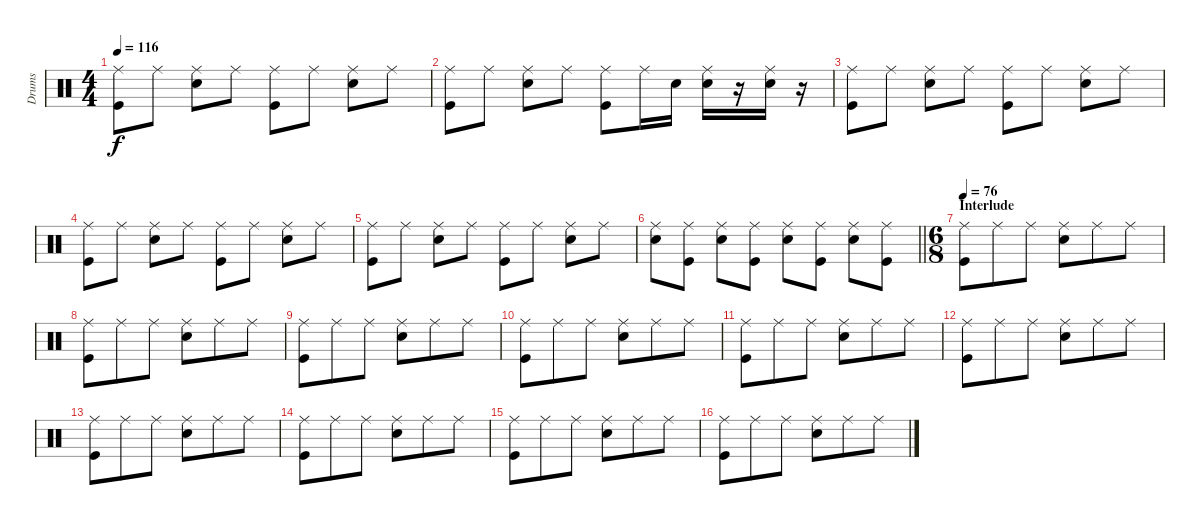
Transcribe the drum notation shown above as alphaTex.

\track ("Drums" "Drums") {instrument percussion}
\staff {score}
\articulation defaults
\ts (4 4)
\tempo 116
\clef neutral
\ks c
("Ride (middle)" "Kick (hit)").8{dy f} "Ride (middle)".8 ("Ride (middle)" "Snare (hit) 2").8 "Ride (middle)".8 ("Ride (middle)" "Kick (hit)").8 "Ride (middle)".8 ("Ride (middle)" "Snare (hit) 2").8 "Ride (middle)".8 |
("Ride (middle)" "Kick (hit)").8 "Ride (middle)".8 ("Ride (middle)" "Snare (hit) 2").8 "Ride (middle)".8 ("Ride (middle)" "Kick (hit)").8 "Ride (middle)".16 "Snare (hit) 2".16 ("Ride (middle)" "Snare (hit) 2").16 r.16 ("Ride (middle)" "Snare (hit) 2").16 r.16 |
("Ride (middle)" "Kick (hit)").8 "Ride (middle)".8 ("Ride (middle)" "Snare (hit) 2").8 "Ride (middle)".8 ("Ride (middle)" "Kick (hit)").8 "Ride (middle)".8 ("Ride (middle)" "Snare (hit) 2").8 "Ride (middle)".8 |
("Ride (middle)" "Kick (hit)").8 "Ride (middle)".8 ("Ride (middle)" "Snare (hit) 2").8 "Ride (middle)".8 ("Ride (middle)" "Kick (hit)").8 "Ride (middle)".8 ("Ride (middle)" "Snare (hit) 2").8 "Ride (middle)".8 |
("Ride (middle)" "Kick (hit)").8 "Ride (middle)".8 ("Ride (middle)" "Snare (hit) 2").8 "Ride (middle)".8 ("Ride (middle)" "Kick (hit)").8 "Ride (middle)".8 ("Ride (middle)" "Snare (hit) 2").8 "Ride (middle)".8 |
\barLineRight lightlight
("Ride (middle)" "Snare (hit) 2").8 ("Ride (middle)" "Kick (hit)").8 ("Ride (middle)" "Snare (hit) 2").8 ("Ride (middle)" "Kick (hit)").8 ("Ride (middle)" "Snare (hit) 2").8 ("Ride (middle)" "Kick (hit)").8 ("Ride (middle)" "Snare (hit) 2").8 ("Ride (middle)" "Kick (hit)").8 |
\ts (6 8)
\section ("" "Interlude")
\tempo 76
("Ride (middle)" "Kick (hit)").8 "Ride (middle)".8 "Ride (middle)".8 ("Ride (middle)" "Snare (hit) 2").8 "Ride (middle)".8 "Ride (middle)".8 |
("Ride (middle)" "Kick (hit)").8 "Ride (middle)".8 "Ride (middle)".8 ("Ride (middle)" "Snare (hit) 2").8 "Ride (middle)".8 "Ride (middle)".8 |
("Ride (middle)" "Kick (hit)").8 "Ride (middle)".8 "Ride (middle)".8 ("Ride (middle)" "Snare (hit) 2").8 "Ride (middle)".8 "Ride (middle)".8 |
("Ride (middle)" "Kick (hit)").8 "Ride (middle)".8 "Ride (middle)".8 ("Ride (middle)" "Snare (hit) 2").8 "Ride (middle)".8 "Ride (middle)".8 |
("Ride (middle)" "Kick (hit)").8 "Ride (middle)".8 "Ride (middle)".8 ("Ride (middle)" "Snare (hit) 2").8 "Ride (middle)".8 "Ride (middle)".8 |
("Ride (middle)" "Kick (hit)").8 "Ride (middle)".8 "Ride (middle)".8 ("Ride (middle)" "Snare (hit) 2").8 "Ride (middle)".8 "Ride (middle)".8 |
("Ride (middle)" "Kick (hit)").8 "Ride (middle)".8 "Ride (middle)".8 ("Ride (middle)" "Snare (hit) 2").8 "Ride (middle)".8 "Ride (middle)".8 |
("Ride (middle)" "Kick (hit)").8 "Ride (middle)".8 "Ride (middle)".8 ("Ride (middle)" "Snare (hit) 2").8 "Ride (middle)".8 "Ride (middle)".8 |
("Ride (middle)" "Kick (hit)").8 "Ride (middle)".8 "Ride (middle)".8 ("Ride (middle)" "Snare (hit) 2").8 "Ride (middle)".8 "Ride (middle)".8 |
("Ride (middle)" "Kick (hit)").8 "Ride (middle)".8 "Ride (middle)".8 ("Ride (middle)" "Snare (hit) 2").8 "Ride (middle)".8 "Ride (middle)".8
